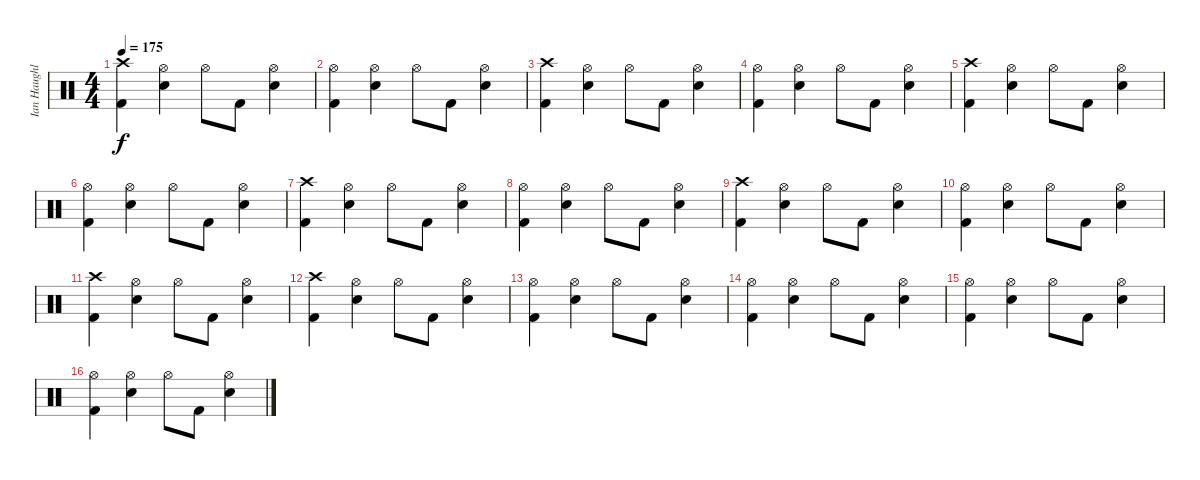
\track ("Ian Haughland" "Ian Haughl") {instrument percussion}
\staff {score}
\articulation defaults
\ts (4 4)
\tempo 175
\clef neutral
\ks c
("Crash high (hit)" "Kick (hit) 2").4{dy f} ("Hi-Hat (open)" "Snare (hit) 2").4 "Hi-Hat (open)".8 "Kick (hit) 2".8 ("Hi-Hat (open)" "Snare (hit) 2").4 |
("Hi-Hat (open)" "Kick (hit) 2").4 ("Hi-Hat (open)" "Snare (hit) 2").4 "Hi-Hat (open)".8 "Kick (hit) 2".8 ("Hi-Hat (open)" "Snare (hit) 2").4 |
("Crash high (hit)" "Kick (hit) 2").4 ("Hi-Hat (open)" "Snare (hit) 2").4 "Hi-Hat (open)".8 "Kick (hit) 2".8 ("Hi-Hat (open)" "Snare (hit) 2").4 |
("Hi-Hat (open)" "Kick (hit) 2").4 ("Hi-Hat (open)" "Snare (hit) 2").4 "Hi-Hat (open)".8 "Kick (hit) 2".8 ("Hi-Hat (open)" "Snare (hit) 2").4 |
("Crash high (hit)" "Kick (hit) 2").4 ("Hi-Hat (open)" "Snare (hit) 2").4 "Hi-Hat (open)".8 "Kick (hit) 2".8 ("Hi-Hat (open)" "Snare (hit) 2").4 |
("Hi-Hat (open)" "Kick (hit) 2").4 ("Hi-Hat (open)" "Snare (hit) 2").4 "Hi-Hat (open)".8 "Kick (hit) 2".8 ("Hi-Hat (open)" "Snare (hit) 2").4 |
("Crash high (hit)" "Kick (hit) 2").4 ("Hi-Hat (open)" "Snare (hit) 2").4 "Hi-Hat (open)".8 "Kick (hit) 2".8 ("Hi-Hat (open)" "Snare (hit) 2").4 |
("Hi-Hat (open)" "Kick (hit) 2").4 ("Hi-Hat (open)" "Snare (hit) 2").4 "Hi-Hat (open)".8 "Kick (hit) 2".8 ("Hi-Hat (open)" "Snare (hit) 2").4 |
("Crash high (hit)" "Kick (hit) 2").4 ("Hi-Hat (open)" "Snare (hit) 2").4 "Hi-Hat (open)".8 "Kick (hit) 2".8 ("Hi-Hat (open)" "Snare (hit) 2").4 |
("Hi-Hat (open)" "Kick (hit) 2").4 ("Hi-Hat (open)" "Snare (hit) 2").4 "Hi-Hat (open)".8 "Kick (hit) 2".8 ("Hi-Hat (open)" "Snare (hit) 2").4 |
("Crash high (hit)" "Kick (hit) 2").4 ("Hi-Hat (open)" "Snare (hit) 2").4 "Hi-Hat (open)".8 "Kick (hit) 2".8 ("Hi-Hat (open)" "Snare (hit) 2").4 |
("Crash high (hit)" "Kick (hit) 2").4 ("Hi-Hat (open)" "Snare (hit) 2").4 "Hi-Hat (open)".8 "Kick (hit) 2".8 ("Hi-Hat (open)" "Snare (hit) 2").4 |
("Hi-Hat (open)" "Kick (hit) 2").4 ("Hi-Hat (open)" "Snare (hit) 2").4 "Hi-Hat (open)".8 "Kick (hit) 2".8 ("Hi-Hat (open)" "Snare (hit) 2").4 |
("Hi-Hat (open)" "Kick (hit) 2").4 ("Hi-Hat (open)" "Snare (hit) 2").4 "Hi-Hat (open)".8 "Kick (hit) 2".8 ("Hi-Hat (open)" "Snare (hit) 2").4 |
("Hi-Hat (open)" "Kick (hit) 2").4 ("Hi-Hat (open)" "Snare (hit) 2").4 "Hi-Hat (open)".8 "Kick (hit) 2".8 ("Hi-Hat (open)" "Snare (hit) 2").4 |
("Hi-Hat (open)" "Kick (hit) 2").4 ("Hi-Hat (open)" "Snare (hit) 2").4 "Hi-Hat (open)".8 "Kick (hit) 2".8 ("Hi-Hat (open)" "Snare (hit) 2").4
